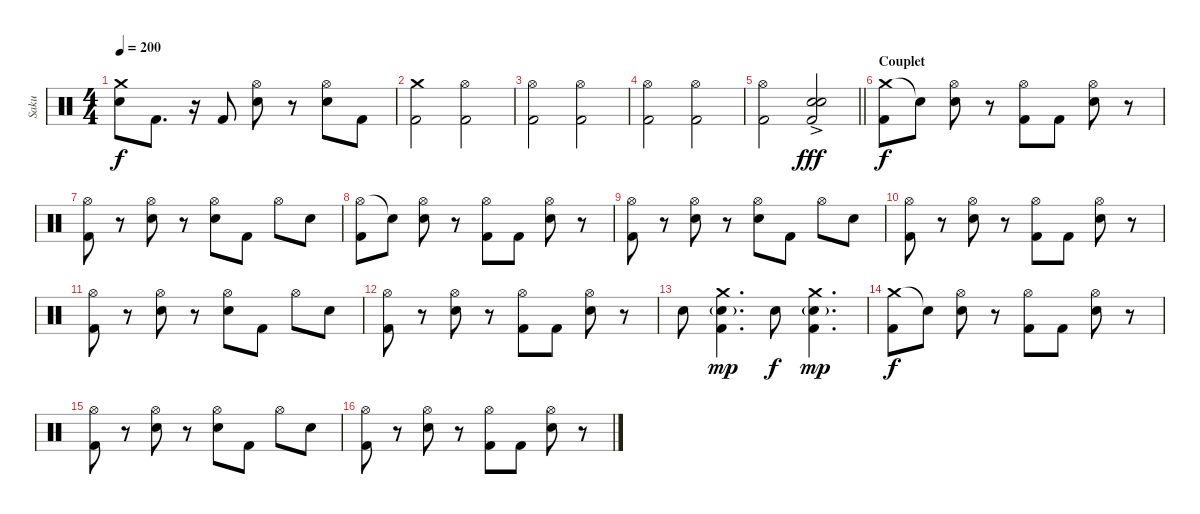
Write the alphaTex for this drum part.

\track ("Saku" "Saku") {instrument percussion}
\staff {score}
\articulation defaults
\ts (4 4)
\tempo 200
\clef neutral
\ks c
("Crash medium (hit)" "Electric Snare (hit)").8{dy f} "Kick (hit) 2".8{d} r.16 "Kick (hit) 2".8 ("Hi-Hat (open)" "Electric Snare (hit)").8 r.8 ("Hi-Hat (open)" "Electric Snare (hit)").8 "Kick (hit) 2".8 |
("Crash medium (hit)" "Kick (hit) 2").2 ("Hi-Hat (open)" "Kick (hit) 2").2 |
("Hi-Hat (open)" "Kick (hit) 2").2 ("Hi-Hat (open)" "Kick (hit) 2").2 |
("Hi-Hat (open)" "Kick (hit) 2").2 ("Hi-Hat (open)" "Kick (hit) 2").2 |
\barLineRight lightlight
("Hi-Hat (open)" "Kick (hit) 2").2 ("Electric Snare (hit)" "Electric Snare (hit)"{ac} "Kick (hit) 2").2{bu 120 dy fff} |
\section ("" "Couplet ")
("Crash medium (hit)" "Kick (hit) 2").8{dy f} "Snare (hit)"{t}.8 ("Hi-Hat (open)" "Electric Snare (hit)").8 r.8 ("Hi-Hat (open)" "Kick (hit) 2").8 "Kick (hit) 2".8 ("Hi-Hat (open)" "Electric Snare (hit)").8 r.8 |
("Hi-Hat (open)" "Kick (hit) 2").8 r.8 ("Hi-Hat (open)" "Electric Snare (hit)").8 r.8 ("Hi-Hat (open)" "Electric Snare (hit)").8 "Kick (hit) 2".8 "Hi-Hat (open)".8 "Electric Snare (hit)".8 |
("Hi-Hat (open)" "Kick (hit) 2").8 "Snare (hit)"{t}.8 ("Hi-Hat (open)" "Electric Snare (hit)").8 r.8 ("Hi-Hat (open)" "Kick (hit) 2").8 "Kick (hit) 2".8 ("Hi-Hat (open)" "Electric Snare (hit)").8 r.8 |
("Hi-Hat (open)" "Kick (hit) 2").8 r.8 ("Hi-Hat (open)" "Electric Snare (hit)").8 r.8 ("Hi-Hat (open)" "Electric Snare (hit)").8 "Kick (hit) 2".8 "Hi-Hat (open)".8 "Electric Snare (hit)".8 |
("Hi-Hat (open)" "Kick (hit) 2").8 r.8 ("Hi-Hat (open)" "Electric Snare (hit)").8 r.8 ("Hi-Hat (open)" "Kick (hit) 2").8 "Kick (hit) 2".8 ("Hi-Hat (open)" "Electric Snare (hit)").8 r.8 |
("Hi-Hat (open)" "Kick (hit) 2").8 r.8 ("Hi-Hat (open)" "Electric Snare (hit)").8 r.8 ("Hi-Hat (open)" "Electric Snare (hit)").8 "Kick (hit) 2".8 "Hi-Hat (open)".8 "Electric Snare (hit)".8 |
("Hi-Hat (open)" "Kick (hit) 2").8 r.8 ("Hi-Hat (open)" "Electric Snare (hit)").8 r.8 ("Hi-Hat (open)" "Kick (hit) 2").8 "Kick (hit) 2".8 ("Hi-Hat (open)" "Electric Snare (hit)").8 r.8 |
"Electric Snare (hit)".8 ("Crash medium (hit)" "Electric Snare (hit)"{g} "Kick (hit) 2").4{d dy mp} "Electric Snare (hit)".8{dy f} ("Crash medium (hit)" "Electric Snare (hit)"{g} "Kick (hit) 2").4{d dy mp} |
("Crash medium (hit)" "Kick (hit) 2").8{dy f} "Snare (hit)"{t}.8 ("Hi-Hat (open)" "Electric Snare (hit)").8 r.8 ("Hi-Hat (open)" "Kick (hit) 2").8 "Kick (hit) 2".8 ("Hi-Hat (open)" "Electric Snare (hit)").8 r.8 |
("Hi-Hat (open)" "Kick (hit) 2").8 r.8 ("Hi-Hat (open)" "Electric Snare (hit)").8 r.8 ("Hi-Hat (open)" "Electric Snare (hit)").8 "Kick (hit) 2".8 "Hi-Hat (open)".8 "Electric Snare (hit)".8 |
("Hi-Hat (open)" "Kick (hit) 2").8 r.8 ("Hi-Hat (open)" "Electric Snare (hit)").8 r.8 ("Hi-Hat (open)" "Kick (hit) 2").8 "Kick (hit) 2".8 ("Hi-Hat (open)" "Electric Snare (hit)").8 r.8
